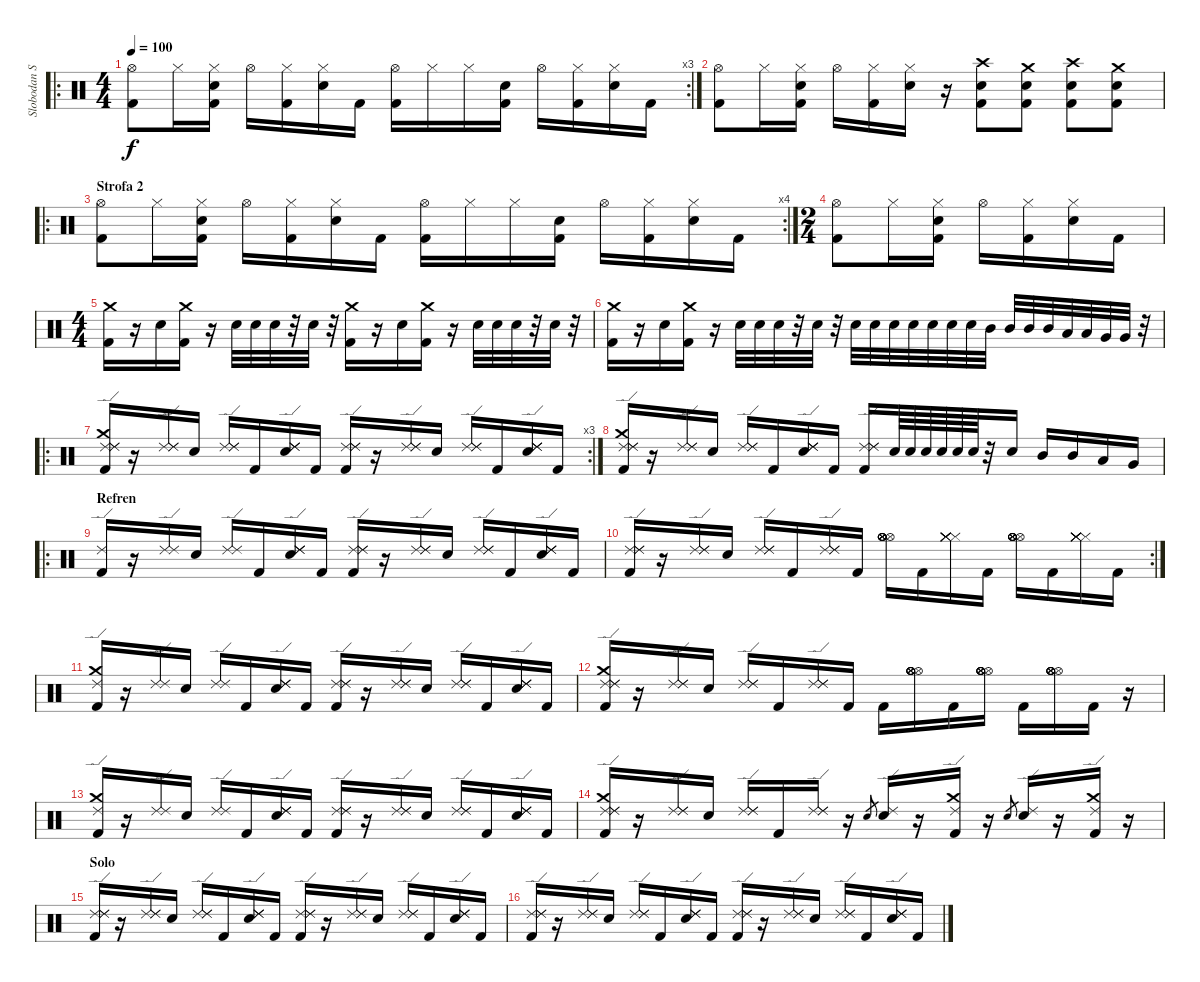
\track ("Slobodan Stojanovic" "Slobodan S") {instrument percussion}
\staff {score}
\articulation defaults
\ro
\rc 3
\ts (4 4)
\tempo 100
\clef neutral
\ks c
("Hi-Hat (open)" "Kick (hit) 2").8{dy f} "Hi-Hat (closed)".16 ("Hi-Hat (closed)" "Snare (hit) 2" "Kick (hit) 2").16 "Hi-Hat (open)".16 ("Hi-Hat (closed)" "Kick (hit) 2").16 ("Hi-Hat (closed)" "Snare (hit) 2").16 "Kick (hit) 2".16 ("Hi-Hat (open)" "Kick (hit) 2").16 "Hi-Hat (closed)".16 "Hi-Hat (closed)".16 ("Snare (hit) 2" "Kick (hit) 2").16 "Hi-Hat (open)".16 ("Hi-Hat (closed)" "Kick (hit) 2").16 ("Hi-Hat (closed)" "Snare (hit) 2").16 "Kick (hit) 2".16 |
("Hi-Hat (open)" "Kick (hit) 2").8 "Hi-Hat (closed)".16 ("Hi-Hat (closed)" "Snare (hit) 2" "Kick (hit) 2").16 "Hi-Hat (open)".16 ("Hi-Hat (closed)" "Kick (hit) 2").16 ("Hi-Hat (closed)" "Snare (hit) 2").16 r.16 ("Kick (hit) 2" "Snare (hit) 2" "Crash high (hit)").8 ("Kick (hit) 2" "Snare (hit) 2" "Crash medium (hit)").8 ("Kick (hit) 2" "Snare (hit) 2" "Crash high (hit)").8 ("Kick (hit) 2" "Snare (hit) 2" "Crash medium (hit)").8 |
\ro
\rc 4
\section ("" "Strofa 2")
("Hi-Hat (open)" "Kick (hit) 2").8 "Hi-Hat (closed)".16 ("Hi-Hat (closed)" "Snare (hit) 2" "Kick (hit) 2").16 "Hi-Hat (open)".16 ("Hi-Hat (closed)" "Kick (hit) 2").16 ("Hi-Hat (closed)" "Snare (hit) 2").16 "Kick (hit) 2".16 ("Hi-Hat (open)" "Kick (hit) 2").16 "Hi-Hat (closed)".16 "Hi-Hat (closed)".16 ("Snare (hit) 2" "Kick (hit) 2").16 "Hi-Hat (open)".16 ("Hi-Hat (closed)" "Kick (hit) 2").16 ("Hi-Hat (closed)" "Snare (hit) 2").16 "Kick (hit) 2".16 |
\ts (2 4)
("Hi-Hat (open)" "Kick (hit) 2").8 "Hi-Hat (closed)".16 ("Hi-Hat (closed)" "Snare (hit) 2" "Kick (hit) 2").16 "Hi-Hat (open)".16 ("Hi-Hat (closed)" "Kick (hit) 2").16 ("Hi-Hat (closed)" "Snare (hit) 2").16 "Kick (hit) 2".16 |
\ts (4 4)
("Kick (hit) 2" "Crash medium (hit)").16 r.16 "Snare (hit) 2".16 ("Kick (hit) 2" "Crash medium (hit)").16 r.16 "Snare (hit) 2".32 "Snare (hit) 2".32 "Snare (hit) 2".32 r.32 "Snare (hit) 2".32 r.32 ("Kick (hit) 2" "Crash medium (hit)").16 r.16 "Snare (hit) 2".16 ("Kick (hit) 2" "Crash medium (hit)").16 r.16 "Snare (hit) 2".32 "Snare (hit) 2".32 "Snare (hit) 2".32 r.32 "Snare (hit) 2".32 r.32 |
("Kick (hit) 2" "Crash medium (hit)").16 r.16 "Snare (hit) 2".16 ("Kick (hit) 2" "Crash medium (hit)").16 r.16 "Snare (hit) 2".32 "Snare (hit) 2".32 "Snare (hit) 2".32 r.32 "Snare (hit) 2".32 r.32 "Snare (hit) 2".32 "Snare (hit) 2".32 "Snare (hit) 2".32 "Snare (hit) 2".32 "Snare (hit) 2".32 "Snare (hit) 2".32 "Snare (hit) 2".32 "Mid Tom (hit)".32 "Mid Tom (hit)".32 "Mid Tom (hit)".32 "Mid Tom (hit)".32 "Low Tom (hit)".32 "Low Tom (hit)".32 "Very Low Tom (hit)".32 "Very Low Tom (hit)".32 r.32 |
\ro
\rc 3
("Crash medium (hit)" "Kick (hit) 2" "Ride (edge) 2" "Ride (edge) 2" "Ride (edge) 2").16 r.16 ("Ride (edge) 2" "Ride (edge) 2" "Ride (edge) 2").16 "Snare (hit) 2".16 ("Ride (edge) 2" "Ride (edge) 2" "Ride (edge) 2").16 "Kick (hit) 2".16 ("Snare (hit) 2" "Ride (edge) 2" "Ride (edge) 2" "Ride (edge) 2").16 "Kick (hit) 2".16 ("Kick (hit) 2" "Ride (edge) 2" "Ride (edge) 2" "Ride (edge) 2").16 r.16 ("Ride (edge) 2" "Ride (edge) 2" "Ride (edge) 2").16 "Snare (hit) 2".16 ("Ride (edge) 2" "Ride (edge) 2" "Ride (edge) 2").16 "Kick (hit) 2".16 ("Snare (hit) 2" "Ride (edge) 2" "Ride (edge) 2" "Ride (edge) 2").16 "Kick (hit) 2".16 |
("Crash medium (hit)" "Kick (hit) 2" "Ride (edge) 2" "Ride (edge) 2" "Ride (edge) 2").16 r.16 ("Ride (edge) 2" "Ride (edge) 2" "Ride (edge) 2").16 "Snare (hit) 2".16 ("Ride (edge) 2" "Ride (edge) 2" "Ride (edge) 2").16 "Kick (hit) 2".16 ("Snare (hit) 2" "Ride (edge) 2" "Ride (edge) 2" "Ride (edge) 2").16 "Kick (hit) 2".16 ("Kick (hit) 2" "Ride (edge) 2" "Ride (edge) 2" "Ride (edge) 2").16 "Snare (hit) 2".64 "Snare (hit) 2".64 "Snare (hit) 2".64 "Snare (hit) 2".64 "Snare (hit) 2".64 "Snare (hit) 2".64 r.32 "Snare (hit) 2".16 "Mid Tom (hit)".16 "Mid Tom (hit)".16 "Low Tom (hit)".16 "Very Low Tom (hit)".16 |
\ro
\section ("" "Refren")
("Kick (hit) 2" "Ride (edge) 2").16 r.16 ("Ride (edge) 2" "Ride (edge) 2").16 "Snare (hit) 2".16 ("Ride (edge) 2" "Ride (edge) 2").16 "Kick (hit) 2".16 ("Snare (hit) 2" "Ride (edge) 2" "Ride (edge) 2" "Ride (edge) 2").16 "Kick (hit) 2".16 ("Kick (hit) 2" "Ride (edge) 2" "Ride (edge) 2" "Ride (edge) 2").16 r.16 ("Ride (edge) 2" "Ride (edge) 2" "Ride (edge) 2").16 "Snare (hit) 2".16 ("Ride (edge) 2" "Ride (edge) 2" "Ride (edge) 2").16 "Kick (hit) 2".16 ("Snare (hit) 2" "Ride (edge) 2" "Ride (edge) 2" "Ride (edge) 2").16 "Kick (hit) 2".16 |
\rc 2
("Kick (hit) 2" "Ride (edge) 2" "Ride (edge) 2" "Ride (edge) 2").16 r.16 ("Ride (edge) 2" "Ride (edge) 2" "Ride (edge) 2").16 "Snare (hit) 2".16 ("Ride (edge) 2" "Ride (edge) 2" "Ride (edge) 2").16 "Kick (hit) 2".16 ("Ride (edge) 2" "Ride (edge) 2" "Ride (edge) 2").16 "Kick (hit) 2".16 ("Hi-Hat (open)" "Hi-Hat (open)" "Hi-Hat (open)" "Hi-Hat (open)" "Hi-Hat (open)" "Hi-Hat (open)").16 "Kick (hit) 2".16 ("Hi-Hat (closed)" "Hi-Hat (closed)" "Hi-Hat (closed)" "Hi-Hat (closed)" "Hi-Hat (closed)" "Hi-Hat (closed)").16 "Kick (hit) 2".16 ("Hi-Hat (open)" "Hi-Hat (open)" "Hi-Hat (open)" "Hi-Hat (open)" "Hi-Hat (open)" "Hi-Hat (open)").16 "Kick (hit) 2".16 ("Hi-Hat (closed)" "Hi-Hat (closed)" "Hi-Hat (closed)" "Hi-Hat (closed)" "Hi-Hat (closed)" "Hi-Hat (closed)").16 "Kick (hit) 2".16 |
("Crash medium (hit)" "Kick (hit) 2" "Ride (edge) 2").16 r.16 ("Ride (edge) 2" "Ride (edge) 2").16 "Snare (hit) 2".16 ("Ride (edge) 2" "Ride (edge) 2").16 "Kick (hit) 2".16 ("Snare (hit) 2" "Ride (edge) 2" "Ride (edge) 2" "Ride (edge) 2").16 "Kick (hit) 2".16 ("Kick (hit) 2" "Ride (edge) 2" "Ride (edge) 2" "Ride (edge) 2").16 r.16 ("Ride (edge) 2" "Ride (edge) 2" "Ride (edge) 2").16 "Snare (hit) 2".16 ("Ride (edge) 2" "Ride (edge) 2" "Ride (edge) 2").16 "Kick (hit) 2".16 ("Snare (hit) 2" "Ride (edge) 2" "Ride (edge) 2" "Ride (edge) 2").16 "Kick (hit) 2".16 |
("Crash medium (hit)" "Kick (hit) 2" "Ride (edge) 2" "Ride (edge) 2" "Ride (edge) 2").16 r.16 ("Ride (edge) 2" "Ride (edge) 2" "Ride (edge) 2").16 "Snare (hit) 2".16 ("Ride (edge) 2" "Ride (edge) 2" "Ride (edge) 2").16 "Kick (hit) 2".16 ("Ride (edge) 2" "Ride (edge) 2" "Ride (edge) 2").16 "Kick (hit) 2".16 "Kick (hit) 2".16 ("Hi-Hat (open)" "Hi-Hat (open)" "Hi-Hat (open)" "Hi-Hat (open)" "Hi-Hat (open)" "Hi-Hat (open)").16 "Kick (hit) 2".16 ("Hi-Hat (open)" "Hi-Hat (open)" "Hi-Hat (open)" "Hi-Hat (open)" "Hi-Hat (open)" "Hi-Hat (open)").16 "Kick (hit) 2".16 ("Hi-Hat (open)" "Hi-Hat (open)" "Hi-Hat (open)" "Hi-Hat (open)" "Hi-Hat (open)" "Hi-Hat (open)").16 "Kick (hit) 2".16 r.16 |
("Crash medium (hit)" "Kick (hit) 2" "Ride (edge) 2").16 r.16 ("Ride (edge) 2" "Ride (edge) 2").16 "Snare (hit) 2".16 ("Ride (edge) 2" "Ride (edge) 2").16 "Kick (hit) 2".16 ("Snare (hit) 2" "Ride (edge) 2" "Ride (edge) 2" "Ride (edge) 2").16 "Kick (hit) 2".16 ("Kick (hit) 2" "Ride (edge) 2" "Ride (edge) 2" "Ride (edge) 2").16 r.16 ("Ride (edge) 2" "Ride (edge) 2" "Ride (edge) 2").16 "Snare (hit) 2".16 ("Ride (edge) 2" "Ride (edge) 2" "Ride (edge) 2").16 "Kick (hit) 2".16 ("Snare (hit) 2" "Ride (edge) 2" "Ride (edge) 2" "Ride (edge) 2").16 "Kick (hit) 2".16 |
("Crash medium (hit)" "Kick (hit) 2" "Ride (edge) 2" "Ride (edge) 2" "Ride (edge) 2").16 r.16 ("Ride (edge) 2" "Ride (edge) 2" "Ride (edge) 2").16 "Snare (hit) 2".16 ("Ride (edge) 2" "Ride (edge) 2" "Ride (edge) 2").16 "Kick (hit) 2".16 ("Ride (edge) 2" "Ride (edge) 2" "Ride (edge) 2").16 r.16 "Snare (hit) 2".8{gr} ("Snare (hit) 2" "Ride (edge) 2").16 r.16 ("Crash medium (hit)" "Kick (hit) 2" "Ride (edge) 2").16 r.16 "Snare (hit) 2".8{gr} ("Snare (hit) 2" "Ride (edge) 2").16 r.16 ("Crash medium (hit)" "Kick (hit) 2" "Ride (edge) 2").16 r.16 |
\section ("" "Solo")
("Kick (hit) 2" "Ride (edge) 2" "Ride (edge) 2" "Ride (edge) 2").16 r.16 ("Ride (edge) 2" "Ride (edge) 2" "Ride (edge) 2").16 "Snare (hit) 2".16 ("Ride (edge) 2" "Ride (edge) 2" "Ride (edge) 2").16 "Kick (hit) 2".16 ("Snare (hit) 2" "Ride (edge) 2" "Ride (edge) 2" "Ride (edge) 2").16 "Kick (hit) 2".16 ("Kick (hit) 2" "Ride (edge) 2" "Ride (edge) 2" "Ride (edge) 2").16 r.16 ("Ride (edge) 2" "Ride (edge) 2" "Ride (edge) 2").16 "Snare (hit) 2".16 ("Ride (edge) 2" "Ride (edge) 2" "Ride (edge) 2").16 "Kick (hit) 2".16 ("Snare (hit) 2" "Ride (edge) 2" "Ride (edge) 2" "Ride (edge) 2").16 "Kick (hit) 2".16 |
("Kick (hit) 2" "Ride (edge) 2" "Ride (edge) 2" "Ride (edge) 2").16 r.16 ("Ride (edge) 2" "Ride (edge) 2" "Ride (edge) 2").16 "Snare (hit) 2".16 ("Ride (edge) 2" "Ride (edge) 2" "Ride (edge) 2").16 "Kick (hit) 2".16 ("Snare (hit) 2" "Ride (edge) 2" "Ride (edge) 2" "Ride (edge) 2").16 "Kick (hit) 2".16 ("Kick (hit) 2" "Ride (edge) 2" "Ride (edge) 2" "Ride (edge) 2").16 r.16 ("Ride (edge) 2" "Ride (edge) 2" "Ride (edge) 2").16 "Snare (hit) 2".16 ("Ride (edge) 2" "Ride (edge) 2" "Ride (edge) 2").16 "Kick (hit) 2".16 ("Snare (hit) 2" "Ride (edge) 2" "Ride (edge) 2" "Ride (edge) 2").16 "Kick (hit) 2".16
